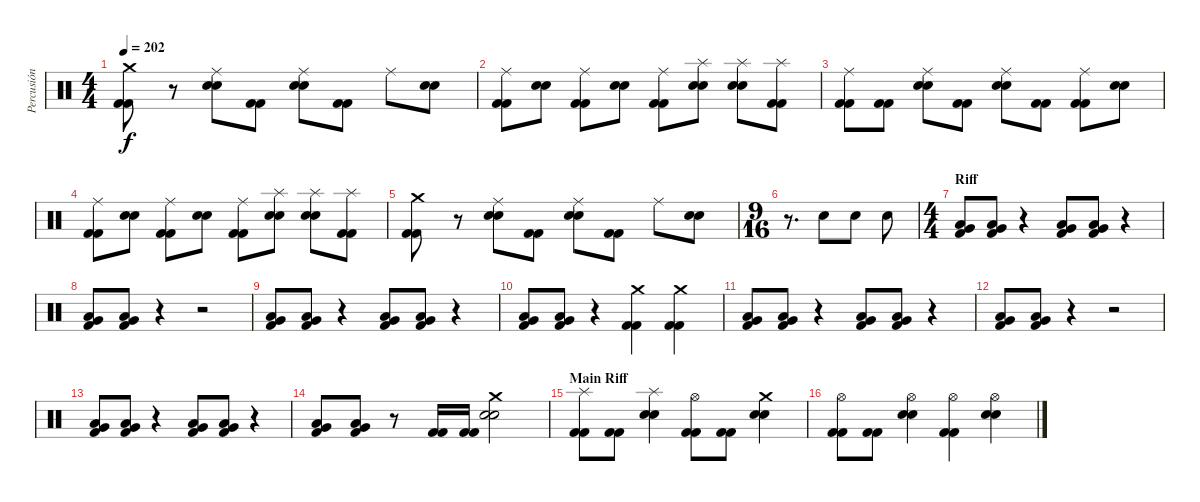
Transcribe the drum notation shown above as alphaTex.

\track ("Percusión" "Percusión") {instrument percussion}
\staff {score}
\articulation defaults
\ts (4 4)
\tempo 202
\clef neutral
\ks c
("Crash medium (hit)" "Kick (hit) 2" "Kick (hit) 2").8{dy f} r.8 ("Ride (middle)" "Snare (hit) 2" "Snare (hit) 2").8 ("Kick (hit) 2" "Kick (hit) 2").8 ("Ride (middle)" "Snare (hit) 2" "Snare (hit) 2").8 ("Kick (hit) 2" "Kick (hit) 2").8 "Ride (middle)".8 ("Snare (hit) 2" "Snare (hit) 2").8 |
("Ride (middle)" "Kick (hit) 2" "Kick (hit) 2").8 ("Snare (hit) 2" "Snare (hit) 2").8 ("Ride (middle)" "Kick (hit) 2" "Kick (hit) 2").8 ("Snare (hit) 2" "Snare (hit) 2").8 ("Ride (middle)" "Kick (hit) 2" "Kick (hit) 2").8 ("Splash (hit)" "Snare (hit) 2" "Snare (hit) 2").8 ("Splash (hit)" "Snare (hit) 2" "Snare (hit) 2").8 ("Splash (hit)" "Kick (hit) 2" "Kick (hit) 2").8 |
("Ride (middle)" "Kick (hit) 2" "Kick (hit) 2").8 ("Kick (hit) 2" "Kick (hit) 2").8 ("Ride (middle)" "Snare (hit) 2" "Snare (hit) 2").8 ("Kick (hit) 2" "Kick (hit) 2").8 ("Ride (middle)" "Snare (hit) 2" "Snare (hit) 2").8 ("Kick (hit) 2" "Kick (hit) 2").8 ("Ride (middle)" "Kick (hit) 2" "Kick (hit) 2").8 ("Snare (hit) 2" "Snare (hit) 2").8 |
("Ride (middle)" "Kick (hit) 2" "Kick (hit) 2").8 ("Snare (hit) 2" "Snare (hit) 2").8 ("Ride (middle)" "Kick (hit) 2" "Kick (hit) 2").8 ("Snare (hit) 2" "Snare (hit) 2").8 ("Ride (middle)" "Kick (hit) 2" "Kick (hit) 2").8 ("Splash (hit)" "Snare (hit) 2" "Snare (hit) 2").8 ("Splash (hit)" "Snare (hit) 2" "Snare (hit) 2").8 ("Splash (hit)" "Kick (hit) 2" "Kick (hit) 2").8 |
("Crash medium (hit)" "Kick (hit) 2" "Kick (hit) 2").8 r.8 ("Ride (middle)" "Snare (hit) 2" "Snare (hit) 2").8 ("Kick (hit) 2" "Kick (hit) 2").8 ("Ride (middle)" "Snare (hit) 2" "Snare (hit) 2").8 ("Kick (hit) 2" "Kick (hit) 2").8 "Ride (middle)".8 ("Snare (hit) 2" "Snare (hit) 2").8 |
\ts (9 16)
r.8{d} "Snare (hit) 2".8 "Snare (hit) 2".8 "Snare (hit) 2".8 |
\ts (4 4)
\section ("" "Riff")
("Very Low Tom (hit)" "Low Tom (hit)" "Kick (hit) 2").8 ("Very Low Tom (hit)" "Low Tom (hit)" "Kick (hit) 2").8 r.4 ("Very Low Tom (hit)" "Low Tom (hit)" "Kick (hit) 2").8 ("Very Low Tom (hit)" "Low Tom (hit)" "Kick (hit) 2").8 r.4 |
("Very Low Tom (hit)" "Low Tom (hit)" "Kick (hit) 2").8 ("Very Low Tom (hit)" "Low Tom (hit)" "Kick (hit) 2").8 r.4 r.2 |
("Very Low Tom (hit)" "Low Tom (hit)" "Kick (hit) 2").8 ("Very Low Tom (hit)" "Low Tom (hit)" "Kick (hit) 2").8 r.4 ("Very Low Tom (hit)" "Low Tom (hit)" "Kick (hit) 2").8 ("Very Low Tom (hit)" "Low Tom (hit)" "Kick (hit) 2").8 r.4 |
("Very Low Tom (hit)" "Low Tom (hit)" "Kick (hit) 2").8 ("Very Low Tom (hit)" "Low Tom (hit)" "Kick (hit) 2").8 r.4 ("Crash medium (hit)" "Kick (hit) 2" "Kick (hit) 2").4 ("Crash medium (hit)" "Kick (hit) 2" "Kick (hit) 2").4 |
("Very Low Tom (hit)" "Low Tom (hit)" "Kick (hit) 2").8 ("Very Low Tom (hit)" "Low Tom (hit)" "Kick (hit) 2").8 r.4 ("Very Low Tom (hit)" "Low Tom (hit)" "Kick (hit) 2").8 ("Very Low Tom (hit)" "Low Tom (hit)" "Kick (hit) 2").8 r.4 |
("Very Low Tom (hit)" "Low Tom (hit)" "Kick (hit) 2").8 ("Very Low Tom (hit)" "Low Tom (hit)" "Kick (hit) 2").8 r.4 r.2 |
("Very Low Tom (hit)" "Low Tom (hit)" "Kick (hit) 2").8 ("Very Low Tom (hit)" "Low Tom (hit)" "Kick (hit) 2").8 r.4 ("Very Low Tom (hit)" "Low Tom (hit)" "Kick (hit) 2").8 ("Very Low Tom (hit)" "Low Tom (hit)" "Kick (hit) 2").8 r.4 |
("Very Low Tom (hit)" "Low Tom (hit)" "Kick (hit) 2").8 ("Very Low Tom (hit)" "Low Tom (hit)" "Kick (hit) 2").8 r.8 ("Kick (hit) 2" "Kick (hit) 2").16 ("Kick (hit) 2" "Kick (hit) 2").16 ("Crash medium (hit)" "Snare (hit) 2" "Snare (hit) 2").2 |
\section ("" "Main Riff")
("Splash (hit)" "Kick (hit) 2" "Kick (hit) 2").8 ("Kick (hit) 2" "Kick (hit) 2").8 ("Splash (hit)" "Snare (hit) 2" "Snare (hit) 2").4 ("Hi-Hat (open)" "Kick (hit) 2" "Kick (hit) 2").8 ("Kick (hit) 2" "Kick (hit) 2").8 ("Crash medium (hit)" "Snare (hit) 2" "Snare (hit) 2").4 |
("Hi-Hat (open)" "Kick (hit) 2" "Kick (hit) 2").8 ("Kick (hit) 2" "Kick (hit) 2").8 ("Hi-Hat (open)" "Snare (hit) 2" "Snare (hit) 2").4 ("Hi-Hat (open)" "Kick (hit) 2" "Kick (hit) 2").4 ("Hi-Hat (open)" "Snare (hit) 2" "Snare (hit) 2").4
